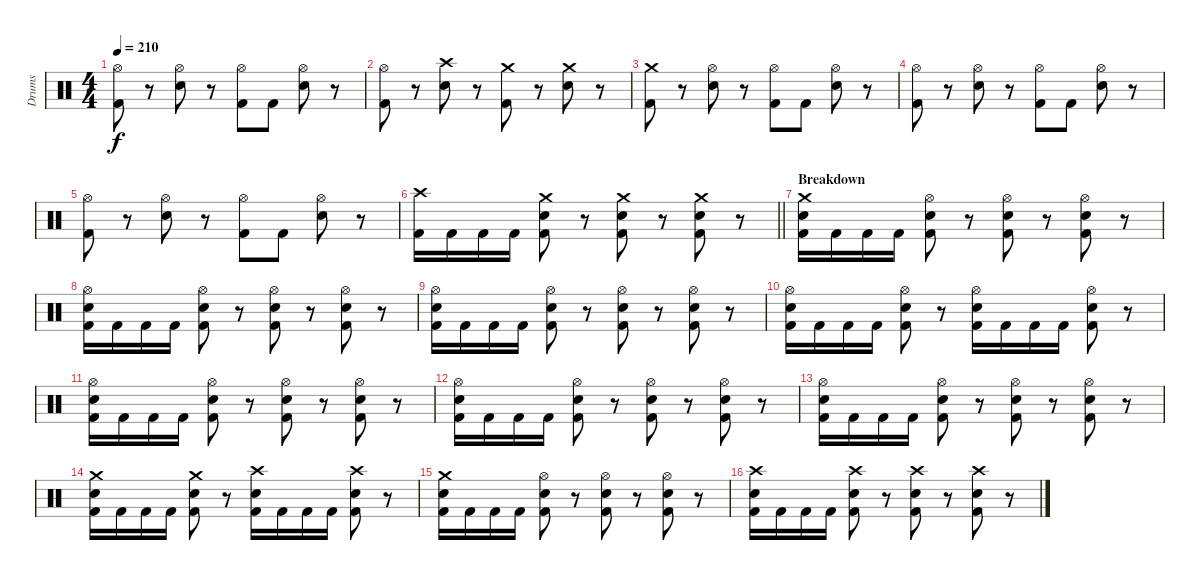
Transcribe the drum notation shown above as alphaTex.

\track ("Drums" "Drums") {instrument percussion}
\staff {score}
\articulation defaults
\ts (4 4)
\tempo 210
\clef neutral
\ks c
("Hi-Hat (open)" "Kick (hit) 2").8{dy f} r.8 ("Hi-Hat (open)" "Electric Snare (hit)").8 r.8 ("Hi-Hat (open)" "Kick (hit) 2").8 "Kick (hit) 2".8 ("Hi-Hat (open)" "Electric Snare (hit)").8 r.8 |
("Hi-Hat (open)" "Kick (hit) 2").8 r.8 ("Crash high (hit)" "Electric Snare (hit)").8 r.8 ("Crash medium (hit)" "Kick (hit) 2").8 r.8 ("Crash medium (hit)" "Electric Snare (hit)").8 r.8 |
("Crash medium (hit)" "Kick (hit) 2").8 r.8 ("Hi-Hat (open)" "Electric Snare (hit)").8 r.8 ("Hi-Hat (open)" "Kick (hit) 2").8 "Kick (hit) 2".8 ("Hi-Hat (open)" "Electric Snare (hit)").8 r.8 |
("Hi-Hat (open)" "Kick (hit) 2").8 r.8 ("Hi-Hat (open)" "Electric Snare (hit)").8 r.8 ("Hi-Hat (open)" "Kick (hit) 2").8 "Kick (hit) 2".8 ("Hi-Hat (open)" "Electric Snare (hit)").8 r.8 |
("Hi-Hat (open)" "Kick (hit) 2").8 r.8 ("Hi-Hat (open)" "Electric Snare (hit)").8 r.8 ("Hi-Hat (open)" "Kick (hit) 2").8 "Kick (hit) 2".8 ("Hi-Hat (open)" "Electric Snare (hit)").8 r.8 |
\barLineRight lightlight
("Crash high (hit)" "Kick (hit) 2").16 "Kick (hit) 2".16 "Kick (hit) 2".16 "Kick (hit) 2".16 ("Crash medium (hit)" "Electric Snare (hit)" "Kick (hit) 2").8 r.8 ("Crash medium (hit)" "Electric Snare (hit)" "Kick (hit) 2").8 r.8 ("Crash medium (hit)" "Electric Snare (hit)" "Kick (hit) 2").8 r.8 |
\section ("" "Breakdown")
("Crash medium (hit)" "Electric Snare (hit)" "Kick (hit) 2").16 "Kick (hit) 2".16 "Kick (hit) 2".16 "Kick (hit) 2".16 ("Hi-Hat (open)" "Electric Snare (hit)" "Kick (hit) 2").8 r.8 ("Hi-Hat (open)" "Electric Snare (hit)" "Kick (hit) 2").8 r.8 ("Hi-Hat (open)" "Electric Snare (hit)" "Kick (hit) 2").8 r.8 |
("Hi-Hat (open)" "Electric Snare (hit)" "Kick (hit) 2").16 "Kick (hit) 2".16 "Kick (hit) 2".16 "Kick (hit) 2".16 ("Hi-Hat (open)" "Electric Snare (hit)" "Kick (hit) 2").8 r.8 ("Hi-Hat (open)" "Electric Snare (hit)" "Kick (hit) 2").8 r.8 ("Hi-Hat (open)" "Electric Snare (hit)" "Kick (hit) 2").8 r.8 |
("Hi-Hat (open)" "Electric Snare (hit)" "Kick (hit) 2").16 "Kick (hit) 2".16 "Kick (hit) 2".16 "Kick (hit) 2".16 ("Hi-Hat (open)" "Electric Snare (hit)" "Kick (hit) 2").8 r.8 ("Hi-Hat (open)" "Electric Snare (hit)" "Kick (hit) 2").8 r.8 ("Hi-Hat (open)" "Electric Snare (hit)" "Kick (hit) 2").8 r.8 |
("Hi-Hat (open)" "Electric Snare (hit)" "Kick (hit) 2").16 "Kick (hit) 2".16 "Kick (hit) 2".16 "Kick (hit) 2".16 ("Hi-Hat (open)" "Electric Snare (hit)" "Kick (hit) 2").8 r.8 ("Hi-Hat (open)" "Electric Snare (hit)" "Kick (hit) 2").16 "Kick (hit) 2".16 "Kick (hit) 2".16 "Kick (hit) 2".16 ("Hi-Hat (open)" "Electric Snare (hit)" "Kick (hit) 2").8 r.8 |
("Hi-Hat (open)" "Electric Snare (hit)" "Kick (hit) 2").16 "Kick (hit) 2".16 "Kick (hit) 2".16 "Kick (hit) 2".16 ("Hi-Hat (open)" "Electric Snare (hit)" "Kick (hit) 2").8 r.8 ("Hi-Hat (open)" "Electric Snare (hit)" "Kick (hit) 2").8 r.8 ("Hi-Hat (open)" "Electric Snare (hit)" "Kick (hit) 2").8 r.8 |
("Hi-Hat (open)" "Electric Snare (hit)" "Kick (hit) 2").16 "Kick (hit) 2".16 "Kick (hit) 2".16 "Kick (hit) 2".16 ("Hi-Hat (open)" "Electric Snare (hit)" "Kick (hit) 2").8 r.8 ("Hi-Hat (open)" "Electric Snare (hit)" "Kick (hit) 2").8 r.8 ("Hi-Hat (open)" "Electric Snare (hit)" "Kick (hit) 2").8 r.8 |
("Hi-Hat (open)" "Electric Snare (hit)" "Kick (hit) 2").16 "Kick (hit) 2".16 "Kick (hit) 2".16 "Kick (hit) 2".16 ("Hi-Hat (open)" "Electric Snare (hit)" "Kick (hit) 2").8 r.8 ("Hi-Hat (open)" "Electric Snare (hit)" "Kick (hit) 2").8 r.8 ("Hi-Hat (open)" "Electric Snare (hit)" "Kick (hit) 2").8 r.8 |
("Crash medium (hit)" "Electric Snare (hit)" "Kick (hit) 2").16 "Kick (hit) 2".16 "Kick (hit) 2".16 "Kick (hit) 2".16 ("Crash medium (hit)" "Electric Snare (hit)" "Kick (hit) 2").8 r.8 ("Crash high (hit)" "Electric Snare (hit)" "Kick (hit) 2").16 "Kick (hit) 2".16 "Kick (hit) 2".16 "Kick (hit) 2".16 ("Crash high (hit)" "Electric Snare (hit)" "Kick (hit) 2").8 r.8 |
("Crash medium (hit)" "Electric Snare (hit)" "Kick (hit) 2").16 "Kick (hit) 2".16 "Kick (hit) 2".16 "Kick (hit) 2".16 ("Hi-Hat (open)" "Electric Snare (hit)" "Kick (hit) 2").8 r.8 ("Hi-Hat (open)" "Electric Snare (hit)" "Kick (hit) 2").8 r.8 ("Hi-Hat (open)" "Electric Snare (hit)" "Kick (hit) 2").8 r.8 |
("Crash high (hit)" "Electric Snare (hit)" "Kick (hit) 2").16 "Kick (hit) 2".16 "Kick (hit) 2".16 "Kick (hit) 2".16 ("Crash high (hit)" "Electric Snare (hit)" "Kick (hit) 2").8 r.8 ("Crash high (hit)" "Electric Snare (hit)" "Kick (hit) 2").8 r.8 ("Crash high (hit)" "Electric Snare (hit)" "Kick (hit) 2").8 r.8
